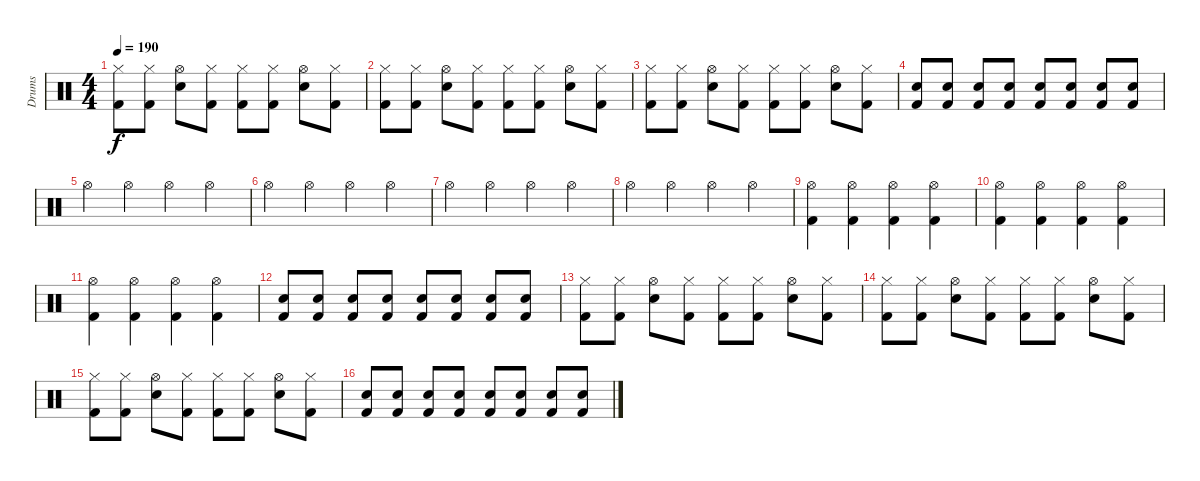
\track ("Drums" "Drums") {instrument percussion}
\staff {score}
\articulation defaults
\ts (4 4)
\tempo 190
\clef neutral
\ks c
("Hi-Hat (closed)" "Kick (hit) 2").8{dy f} ("Hi-Hat (closed)" "Kick (hit) 2").8 ("Hi-Hat (open)" "Snare (hit) 2").8 ("Hi-Hat (closed)" "Kick (hit) 2").8 ("Hi-Hat (closed)" "Kick (hit) 2").8 ("Hi-Hat (closed)" "Kick (hit) 2").8 ("Hi-Hat (open)" "Snare (hit) 2").8 ("Hi-Hat (closed)" "Kick (hit) 2").8 |
("Hi-Hat (closed)" "Kick (hit) 2").8 ("Hi-Hat (closed)" "Kick (hit) 2").8 ("Hi-Hat (open)" "Snare (hit) 2").8 ("Hi-Hat (closed)" "Kick (hit) 2").8 ("Hi-Hat (closed)" "Kick (hit) 2").8 ("Hi-Hat (closed)" "Kick (hit) 2").8 ("Hi-Hat (open)" "Snare (hit) 2").8 ("Hi-Hat (closed)" "Kick (hit) 2").8 |
("Hi-Hat (closed)" "Kick (hit) 2").8 ("Hi-Hat (closed)" "Kick (hit) 2").8 ("Hi-Hat (open)" "Snare (hit) 2").8 ("Hi-Hat (closed)" "Kick (hit) 2").8 ("Hi-Hat (closed)" "Kick (hit) 2").8 ("Hi-Hat (closed)" "Kick (hit) 2").8 ("Hi-Hat (open)" "Snare (hit) 2").8 ("Hi-Hat (closed)" "Kick (hit) 2").8 |
("Snare (hit) 2" "Kick (hit) 2").8 ("Snare (hit) 2" "Kick (hit) 2").8 ("Snare (hit) 2" "Kick (hit) 2").8 ("Snare (hit) 2" "Kick (hit) 2").8 ("Snare (hit) 2" "Kick (hit) 2").8 ("Snare (hit) 2" "Kick (hit) 2").8 ("Snare (hit) 2" "Kick (hit) 2").8 ("Snare (hit) 2" "Kick (hit) 2").8 |
"Hi-Hat (open)".4 "Hi-Hat (open)".4 "Hi-Hat (open)".4 "Hi-Hat (open)".4 |
"Hi-Hat (open)".4 "Hi-Hat (open)".4 "Hi-Hat (open)".4 "Hi-Hat (open)".4 |
"Hi-Hat (open)".4 "Hi-Hat (open)".4 "Hi-Hat (open)".4 "Hi-Hat (open)".4 |
"Hi-Hat (open)".4 "Hi-Hat (open)".4 "Hi-Hat (open)".4 "Hi-Hat (open)".4 |
("Hi-Hat (open)" "Kick (hit) 2").4 ("Hi-Hat (open)" "Kick (hit) 2").4 ("Hi-Hat (open)" "Kick (hit) 2").4 ("Hi-Hat (open)" "Kick (hit) 2").4 |
("Hi-Hat (open)" "Kick (hit) 2").4 ("Hi-Hat (open)" "Kick (hit) 2").4 ("Hi-Hat (open)" "Kick (hit) 2").4 ("Hi-Hat (open)" "Kick (hit) 2").4 |
("Hi-Hat (open)" "Kick (hit) 2").4 ("Hi-Hat (open)" "Kick (hit) 2").4 ("Hi-Hat (open)" "Kick (hit) 2").4 ("Hi-Hat (open)" "Kick (hit) 2").4 |
("Snare (hit) 2" "Kick (hit) 2").8 ("Snare (hit) 2" "Kick (hit) 2").8 ("Snare (hit) 2" "Kick (hit) 2").8 ("Snare (hit) 2" "Kick (hit) 2").8 ("Snare (hit) 2" "Kick (hit) 2").8 ("Snare (hit) 2" "Kick (hit) 2").8 ("Snare (hit) 2" "Kick (hit) 2").8 ("Snare (hit) 2" "Kick (hit) 2").8 |
("Hi-Hat (closed)" "Kick (hit) 2").8 ("Hi-Hat (closed)" "Kick (hit) 2").8 ("Hi-Hat (open)" "Snare (hit) 2").8 ("Hi-Hat (closed)" "Kick (hit) 2").8 ("Hi-Hat (closed)" "Kick (hit) 2").8 ("Hi-Hat (closed)" "Kick (hit) 2").8 ("Hi-Hat (open)" "Snare (hit) 2").8 ("Hi-Hat (closed)" "Kick (hit) 2").8 |
("Hi-Hat (closed)" "Kick (hit) 2").8 ("Hi-Hat (closed)" "Kick (hit) 2").8 ("Hi-Hat (open)" "Snare (hit) 2").8 ("Hi-Hat (closed)" "Kick (hit) 2").8 ("Hi-Hat (closed)" "Kick (hit) 2").8 ("Hi-Hat (closed)" "Kick (hit) 2").8 ("Hi-Hat (open)" "Snare (hit) 2").8 ("Hi-Hat (closed)" "Kick (hit) 2").8 |
("Hi-Hat (closed)" "Kick (hit) 2").8 ("Hi-Hat (closed)" "Kick (hit) 2").8 ("Hi-Hat (open)" "Snare (hit) 2").8 ("Hi-Hat (closed)" "Kick (hit) 2").8 ("Hi-Hat (closed)" "Kick (hit) 2").8 ("Hi-Hat (closed)" "Kick (hit) 2").8 ("Hi-Hat (open)" "Snare (hit) 2").8 ("Hi-Hat (closed)" "Kick (hit) 2").8 |
("Snare (hit) 2" "Kick (hit) 2").8 ("Snare (hit) 2" "Kick (hit) 2").8 ("Snare (hit) 2" "Kick (hit) 2").8 ("Snare (hit) 2" "Kick (hit) 2").8 ("Snare (hit) 2" "Kick (hit) 2").8 ("Snare (hit) 2" "Kick (hit) 2").8 ("Snare (hit) 2" "Kick (hit) 2").8 ("Snare (hit) 2" "Kick (hit) 2").8
